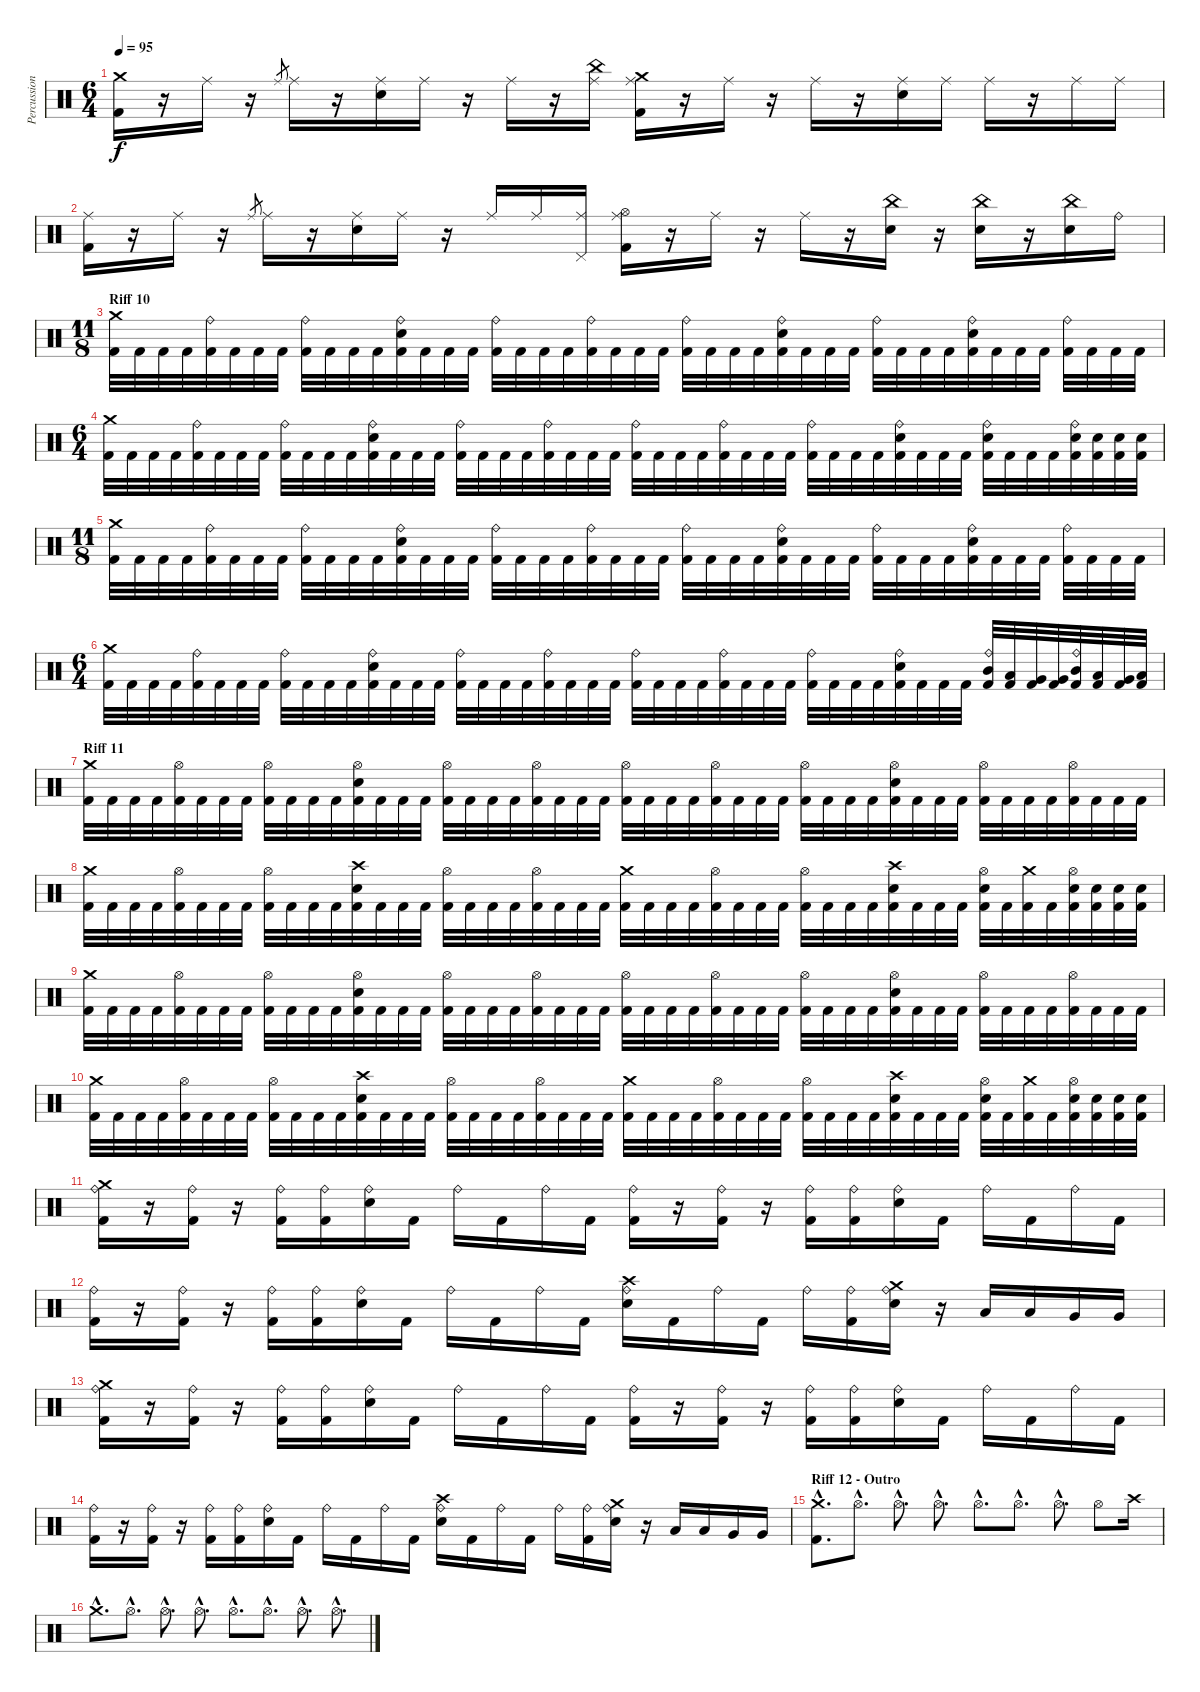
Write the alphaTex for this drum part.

\track ("Percussion" "Percussion") {instrument percussion}
\staff {score}
\articulation defaults
\ts (6 4)
\tempo 95
\clef neutral
\ks c
("Crash medium (hit)" "Kick (hit) 2").16{dy f} r.16 "Ride (middle)".16 r.16 "Ride (middle)".8{gr} "Ride (middle)".16 r.16 ("Ride (middle)" "Electric Snare (hit)").16 "Ride (middle)".16 r.16 "Ride (middle)".16 r.16 ("Ride (middle)" "China (hit)").16 ("Ride (middle)" "Crash medium (hit)" "Kick (hit) 2").16 r.16 "Ride (middle)".16 r.16 "Ride (middle)".16 r.16 ("Ride (middle)" "Electric Snare (hit)").16 "Ride (middle)".16 "Ride (middle)".16 r.16 "Ride (middle)".16 "Ride (middle)".16 |
("Ride (middle)" "Kick (hit) 2").16 r.16 "Ride (middle)".16 r.16 "Ride (middle)".8{gr} "Ride (middle)".16 r.16 ("Ride (middle)" "Electric Snare (hit)").16 "Ride (middle)".16 r.16 "Ride (middle)".16 "Ride (middle)".16 ("Ride (middle)" "Pedal Hi-Hat (hit)").16 ("Ride (middle)" "Hi-Hat (open)" "Kick (hit) 2").16 r.16 "Ride (middle)".16 r.16 "Ride (middle)".16 r.16 ("China (hit)" "Electric Snare (hit)").16 r.16 ("China (hit)" "Electric Snare (hit)").16 r.16 ("China (hit)" "Electric Snare (hit)").16 "Ride (bell)".16 |
\ts (11 8)
\section ("" "Riff 10")
("Crash medium (hit)" "Kick (hit) 2").32 "Kick (hit) 2".32 "Kick (hit) 2".32 "Kick (hit) 2".32 ("Ride (bell)" "Kick (hit) 2").32 "Kick (hit) 2".32 "Kick (hit) 2".32 "Kick (hit) 2".32 ("Ride (bell)" "Kick (hit) 2").32 "Kick (hit) 2".32 "Kick (hit) 2".32 "Kick (hit) 2".32 ("Ride (bell)" "Electric Snare (hit)" "Kick (hit) 2").32 "Kick (hit) 2".32 "Kick (hit) 2".32 "Kick (hit) 2".32 ("Ride (bell)" "Kick (hit) 2").32 "Kick (hit) 2".32 "Kick (hit) 2".32 "Kick (hit) 2".32 ("Ride (bell)" "Kick (hit) 2").32 "Kick (hit) 2".32 "Kick (hit) 2".32 "Kick (hit) 2".32 ("Ride (bell)" "Kick (hit) 2").32 "Kick (hit) 2".32 "Kick (hit) 2".32 "Kick (hit) 2".32 ("Ride (bell)" "Electric Snare (hit)" "Kick (hit) 2").32 "Kick (hit) 2".32 "Kick (hit) 2".32 "Kick (hit) 2".32 ("Ride (bell)" "Kick (hit) 2").32 "Kick (hit) 2".32 "Kick (hit) 2".32 "Kick (hit) 2".32 ("Ride (bell)" "Electric Snare (hit)" "Kick (hit) 2").32 "Kick (hit) 2".32 "Kick (hit) 2".32 "Kick (hit) 2".32 ("Ride (bell)" "Kick (hit) 2").32 "Kick (hit) 2".32 "Kick (hit) 2".32 "Kick (hit) 2".32 |
\ts (6 4)
("Crash medium (hit)" "Kick (hit) 2").32 "Kick (hit) 2".32 "Kick (hit) 2".32 "Kick (hit) 2".32 ("Ride (bell)" "Kick (hit) 2").32 "Kick (hit) 2".32 "Kick (hit) 2".32 "Kick (hit) 2".32 ("Ride (bell)" "Kick (hit) 2").32 "Kick (hit) 2".32 "Kick (hit) 2".32 "Kick (hit) 2".32 ("Ride (bell)" "Electric Snare (hit)" "Kick (hit) 2").32 "Kick (hit) 2".32 "Kick (hit) 2".32 "Kick (hit) 2".32 ("Ride (bell)" "Kick (hit) 2").32 "Kick (hit) 2".32 "Kick (hit) 2".32 "Kick (hit) 2".32 ("Ride (bell)" "Kick (hit) 2").32 "Kick (hit) 2".32 "Kick (hit) 2".32 "Kick (hit) 2".32 ("Ride (bell)" "Kick (hit) 2").32 "Kick (hit) 2".32 "Kick (hit) 2".32 "Kick (hit) 2".32 ("Ride (bell)" "Kick (hit) 2").32 "Kick (hit) 2".32 "Kick (hit) 2".32 "Kick (hit) 2".32 ("Ride (bell)" "Kick (hit) 2").32 "Kick (hit) 2".32 "Kick (hit) 2".32 "Kick (hit) 2".32 ("Ride (bell)" "Electric Snare (hit)" "Kick (hit) 2").32 "Kick (hit) 2".32 "Kick (hit) 2".32 "Kick (hit) 2".32 ("Ride (bell)" "Electric Snare (hit)" "Kick (hit) 2").32 "Kick (hit) 2".32 "Kick (hit) 2".32 "Kick (hit) 2".32 ("Ride (bell)" "Electric Snare (hit)" "Kick (hit) 2").32 ("Electric Snare (hit)" "Kick (hit) 2").32 ("Electric Snare (hit)" "Kick (hit) 2").32 ("Electric Snare (hit)" "Kick (hit) 2").32 |
\ts (11 8)
("Crash medium (hit)" "Kick (hit) 2").32 "Kick (hit) 2".32 "Kick (hit) 2".32 "Kick (hit) 2".32 ("Ride (bell)" "Kick (hit) 2").32 "Kick (hit) 2".32 "Kick (hit) 2".32 "Kick (hit) 2".32 ("Ride (bell)" "Kick (hit) 2").32 "Kick (hit) 2".32 "Kick (hit) 2".32 "Kick (hit) 2".32 ("Ride (bell)" "Electric Snare (hit)" "Kick (hit) 2").32 "Kick (hit) 2".32 "Kick (hit) 2".32 "Kick (hit) 2".32 ("Ride (bell)" "Kick (hit) 2").32 "Kick (hit) 2".32 "Kick (hit) 2".32 "Kick (hit) 2".32 ("Ride (bell)" "Kick (hit) 2").32 "Kick (hit) 2".32 "Kick (hit) 2".32 "Kick (hit) 2".32 ("Ride (bell)" "Kick (hit) 2").32 "Kick (hit) 2".32 "Kick (hit) 2".32 "Kick (hit) 2".32 ("Ride (bell)" "Electric Snare (hit)" "Kick (hit) 2").32 "Kick (hit) 2".32 "Kick (hit) 2".32 "Kick (hit) 2".32 ("Ride (bell)" "Kick (hit) 2").32 "Kick (hit) 2".32 "Kick (hit) 2".32 "Kick (hit) 2".32 ("Ride (bell)" "Electric Snare (hit)" "Kick (hit) 2").32 "Kick (hit) 2".32 "Kick (hit) 2".32 "Kick (hit) 2".32 ("Ride (bell)" "Kick (hit) 2").32 "Kick (hit) 2".32 "Kick (hit) 2".32 "Kick (hit) 2".32 |
\ts (6 4)
("Crash medium (hit)" "Kick (hit) 2").32 "Kick (hit) 2".32 "Kick (hit) 2".32 "Kick (hit) 2".32 ("Ride (bell)" "Kick (hit) 2").32 "Kick (hit) 2".32 "Kick (hit) 2".32 "Kick (hit) 2".32 ("Ride (bell)" "Kick (hit) 2").32 "Kick (hit) 2".32 "Kick (hit) 2".32 "Kick (hit) 2".32 ("Ride (bell)" "Electric Snare (hit)" "Kick (hit) 2").32 "Kick (hit) 2".32 "Kick (hit) 2".32 "Kick (hit) 2".32 ("Ride (bell)" "Kick (hit) 2").32 "Kick (hit) 2".32 "Kick (hit) 2".32 "Kick (hit) 2".32 ("Ride (bell)" "Kick (hit) 2").32 "Kick (hit) 2".32 "Kick (hit) 2".32 "Kick (hit) 2".32 ("Ride (bell)" "Kick (hit) 2").32 "Kick (hit) 2".32 "Kick (hit) 2".32 "Kick (hit) 2".32 ("Ride (bell)" "Kick (hit) 2").32 "Kick (hit) 2".32 "Kick (hit) 2".32 "Kick (hit) 2".32 ("Ride (bell)" "Kick (hit) 2").32 "Kick (hit) 2".32 "Kick (hit) 2".32 "Kick (hit) 2".32 ("Ride (bell)" "Electric Snare (hit)" "Kick (hit) 2").32 "Kick (hit) 2".32 "Kick (hit) 2".32 "Kick (hit) 2".32 ("Ride (bell)" "Mid Tom (hit)" "Kick (hit) 2").32 ("Low Tom (hit)" "Kick (hit) 2").32 ("Very Low Tom (hit)" "Kick (hit) 2").32 ("Very Low Tom (hit)" "Kick (hit) 2").32 ("Ride (bell)" "Mid Tom (hit)" "Kick (hit) 2").32 ("Low Tom (hit)" "Kick (hit) 2").32 ("Very Low Tom (hit)" "Kick (hit) 2").32 ("Low Floor Tom (hit)" "Kick (hit) 2").32 |
\section ("" "Riff 11")
("Crash medium (hit)" "Kick (hit) 2").32 "Kick (hit) 2".32 "Kick (hit) 2".32 "Kick (hit) 2".32 ("Hi-Hat (open)" "Kick (hit) 2").32 "Kick (hit) 2".32 "Kick (hit) 2".32 "Kick (hit) 2".32 ("Hi-Hat (open)" "Kick (hit) 2").32 "Kick (hit) 2".32 "Kick (hit) 2".32 "Kick (hit) 2".32 ("Hi-Hat (open)" "Electric Snare (hit)" "Kick (hit) 2").32 "Kick (hit) 2".32 "Kick (hit) 2".32 "Kick (hit) 2".32 ("Hi-Hat (open)" "Kick (hit) 2").32 "Kick (hit) 2".32 "Kick (hit) 2".32 "Kick (hit) 2".32 ("Hi-Hat (open)" "Kick (hit) 2").32 "Kick (hit) 2".32 "Kick (hit) 2".32 "Kick (hit) 2".32 ("Hi-Hat (open)" "Kick (hit) 2").32 "Kick (hit) 2".32 "Kick (hit) 2".32 "Kick (hit) 2".32 ("Hi-Hat (open)" "Kick (hit) 2").32 "Kick (hit) 2".32 "Kick (hit) 2".32 "Kick (hit) 2".32 ("Hi-Hat (open)" "Kick (hit) 2").32 "Kick (hit) 2".32 "Kick (hit) 2".32 "Kick (hit) 2".32 ("Hi-Hat (open)" "Electric Snare (hit)" "Kick (hit) 2").32 "Kick (hit) 2".32 "Kick (hit) 2".32 "Kick (hit) 2".32 ("Hi-Hat (open)" "Kick (hit) 2").32 "Kick (hit) 2".32 "Kick (hit) 2".32 "Kick (hit) 2".32 ("Hi-Hat (open)" "Kick (hit) 2").32 "Kick (hit) 2".32 "Kick (hit) 2".32 "Kick (hit) 2".32 |
("Crash medium (hit)" "Kick (hit) 2").32 "Kick (hit) 2".32 "Kick (hit) 2".32 "Kick (hit) 2".32 ("Hi-Hat (open)" "Kick (hit) 2").32 "Kick (hit) 2".32 "Kick (hit) 2".32 "Kick (hit) 2".32 ("Hi-Hat (open)" "Kick (hit) 2").32 "Kick (hit) 2".32 "Kick (hit) 2".32 "Kick (hit) 2".32 ("Crash high (hit)" "Electric Snare (hit)" "Kick (hit) 2").32 "Kick (hit) 2".32 "Kick (hit) 2".32 "Kick (hit) 2".32 ("Hi-Hat (open)" "Kick (hit) 2").32 "Kick (hit) 2".32 "Kick (hit) 2".32 "Kick (hit) 2".32 ("Hi-Hat (open)" "Kick (hit) 2").32 "Kick (hit) 2".32 "Kick (hit) 2".32 "Kick (hit) 2".32 ("Crash medium (hit)" "Kick (hit) 2").32 "Kick (hit) 2".32 "Kick (hit) 2".32 "Kick (hit) 2".32 ("Hi-Hat (open)" "Kick (hit) 2").32 "Kick (hit) 2".32 "Kick (hit) 2".32 "Kick (hit) 2".32 ("Hi-Hat (open)" "Kick (hit) 2").32 "Kick (hit) 2".32 "Kick (hit) 2".32 "Kick (hit) 2".32 ("Crash high (hit)" "Electric Snare (hit)" "Kick (hit) 2").32 "Kick (hit) 2".32 "Kick (hit) 2".32 "Kick (hit) 2".32 ("Hi-Hat (open)" "Electric Snare (hit)" "Kick (hit) 2").32 "Kick (hit) 2".32 ("Crash medium (hit)" "Kick (hit) 2").32 "Kick (hit) 2".32 ("Hi-Hat (open)" "Electric Snare (hit)" "Kick (hit) 2").32 ("Electric Snare (hit)" "Kick (hit) 2").32 ("Electric Snare (hit)" "Kick (hit) 2").32 ("Electric Snare (hit)" "Kick (hit) 2").32 |
("Crash medium (hit)" "Kick (hit) 2").32 "Kick (hit) 2".32 "Kick (hit) 2".32 "Kick (hit) 2".32 ("Hi-Hat (open)" "Kick (hit) 2").32 "Kick (hit) 2".32 "Kick (hit) 2".32 "Kick (hit) 2".32 ("Hi-Hat (open)" "Kick (hit) 2").32 "Kick (hit) 2".32 "Kick (hit) 2".32 "Kick (hit) 2".32 ("Hi-Hat (open)" "Electric Snare (hit)" "Kick (hit) 2").32 "Kick (hit) 2".32 "Kick (hit) 2".32 "Kick (hit) 2".32 ("Hi-Hat (open)" "Kick (hit) 2").32 "Kick (hit) 2".32 "Kick (hit) 2".32 "Kick (hit) 2".32 ("Hi-Hat (open)" "Kick (hit) 2").32 "Kick (hit) 2".32 "Kick (hit) 2".32 "Kick (hit) 2".32 ("Hi-Hat (open)" "Kick (hit) 2").32 "Kick (hit) 2".32 "Kick (hit) 2".32 "Kick (hit) 2".32 ("Hi-Hat (open)" "Kick (hit) 2").32 "Kick (hit) 2".32 "Kick (hit) 2".32 "Kick (hit) 2".32 ("Hi-Hat (open)" "Kick (hit) 2").32 "Kick (hit) 2".32 "Kick (hit) 2".32 "Kick (hit) 2".32 ("Hi-Hat (open)" "Electric Snare (hit)" "Kick (hit) 2").32 "Kick (hit) 2".32 "Kick (hit) 2".32 "Kick (hit) 2".32 ("Hi-Hat (open)" "Kick (hit) 2").32 "Kick (hit) 2".32 "Kick (hit) 2".32 "Kick (hit) 2".32 ("Hi-Hat (open)" "Kick (hit) 2").32 "Kick (hit) 2".32 "Kick (hit) 2".32 "Kick (hit) 2".32 |
("Crash medium (hit)" "Kick (hit) 2").32 "Kick (hit) 2".32 "Kick (hit) 2".32 "Kick (hit) 2".32 ("Hi-Hat (open)" "Kick (hit) 2").32 "Kick (hit) 2".32 "Kick (hit) 2".32 "Kick (hit) 2".32 ("Hi-Hat (open)" "Kick (hit) 2").32 "Kick (hit) 2".32 "Kick (hit) 2".32 "Kick (hit) 2".32 ("Crash high (hit)" "Electric Snare (hit)" "Kick (hit) 2").32 "Kick (hit) 2".32 "Kick (hit) 2".32 "Kick (hit) 2".32 ("Hi-Hat (open)" "Kick (hit) 2").32 "Kick (hit) 2".32 "Kick (hit) 2".32 "Kick (hit) 2".32 ("Hi-Hat (open)" "Kick (hit) 2").32 "Kick (hit) 2".32 "Kick (hit) 2".32 "Kick (hit) 2".32 ("Crash medium (hit)" "Kick (hit) 2").32 "Kick (hit) 2".32 "Kick (hit) 2".32 "Kick (hit) 2".32 ("Hi-Hat (open)" "Kick (hit) 2").32 "Kick (hit) 2".32 "Kick (hit) 2".32 "Kick (hit) 2".32 ("Hi-Hat (open)" "Kick (hit) 2").32 "Kick (hit) 2".32 "Kick (hit) 2".32 "Kick (hit) 2".32 ("Crash high (hit)" "Electric Snare (hit)" "Kick (hit) 2").32 "Kick (hit) 2".32 "Kick (hit) 2".32 "Kick (hit) 2".32 ("Hi-Hat (open)" "Electric Snare (hit)" "Kick (hit) 2").32 "Kick (hit) 2".32 ("Crash medium (hit)" "Kick (hit) 2").32 "Kick (hit) 2".32 ("Hi-Hat (open)" "Electric Snare (hit)" "Kick (hit) 2").32 ("Electric Snare (hit)" "Kick (hit) 2").32 ("Electric Snare (hit)" "Kick (hit) 2").32 ("Electric Snare (hit)" "Kick (hit) 2").32 |
("Crash medium (hit)" "Ride (bell)" "Kick (hit) 2").16 r.16 ("Ride (bell)" "Kick (hit) 2").16 r.16 ("Ride (bell)" "Kick (hit) 2").16 ("Ride (bell)" "Kick (hit) 2").16 ("Ride (bell)" "Electric Snare (hit)").16 "Kick (hit) 2".16 "Ride (bell)".16 "Kick (hit) 2".16 "Ride (bell)".16 "Kick (hit) 2".16 ("Ride (bell)" "Kick (hit) 2").16 r.16 ("Ride (bell)" "Kick (hit) 2").16 r.16 ("Ride (bell)" "Kick (hit) 2").16 ("Ride (bell)" "Kick (hit) 2").16 ("Ride (bell)" "Electric Snare (hit)").16 "Kick (hit) 2".16 "Ride (bell)".16 "Kick (hit) 2".16 "Ride (bell)".16 "Kick (hit) 2".16 |
("Ride (bell)" "Kick (hit) 2").16 r.16 ("Ride (bell)" "Kick (hit) 2").16 r.16 ("Ride (bell)" "Kick (hit) 2").16 ("Ride (bell)" "Kick (hit) 2").16 ("Ride (bell)" "Electric Snare (hit)").16 "Kick (hit) 2".16 "Ride (bell)".16 "Kick (hit) 2".16 "Ride (bell)".16 "Kick (hit) 2".16 ("Crash high (hit)" "Ride (bell)" "Electric Snare (hit)").16 "Kick (hit) 2".16 "Ride (bell)".16 "Kick (hit) 2".16 "Ride (bell)".16 ("Ride (bell)" "Kick (hit) 2").16 ("Crash medium (hit)" "Ride (bell)" "Electric Snare (hit)").16 r.16 "Low Tom (hit)".16 "Low Tom (hit)".16 "Very Low Tom (hit)".16 "Very Low Tom (hit)".16 |
("Crash medium (hit)" "Ride (bell)" "Kick (hit) 2").16 r.16 ("Ride (bell)" "Kick (hit) 2").16 r.16 ("Ride (bell)" "Kick (hit) 2").16 ("Ride (bell)" "Kick (hit) 2").16 ("Ride (bell)" "Electric Snare (hit)").16 "Kick (hit) 2".16 "Ride (bell)".16 "Kick (hit) 2".16 "Ride (bell)".16 "Kick (hit) 2".16 ("Ride (bell)" "Kick (hit) 2").16 r.16 ("Ride (bell)" "Kick (hit) 2").16 r.16 ("Ride (bell)" "Kick (hit) 2").16 ("Ride (bell)" "Kick (hit) 2").16 ("Ride (bell)" "Electric Snare (hit)").16 "Kick (hit) 2".16 "Ride (bell)".16 "Kick (hit) 2".16 "Ride (bell)".16 "Kick (hit) 2".16 |
("Ride (bell)" "Kick (hit) 2").16 r.16 ("Ride (bell)" "Kick (hit) 2").16 r.16 ("Ride (bell)" "Kick (hit) 2").16 ("Ride (bell)" "Kick (hit) 2").16 ("Ride (bell)" "Electric Snare (hit)").16 "Kick (hit) 2".16 "Ride (bell)".16 "Kick (hit) 2".16 "Ride (bell)".16 "Kick (hit) 2".16 ("Crash high (hit)" "Ride (bell)" "Electric Snare (hit)").16 "Kick (hit) 2".16 "Ride (bell)".16 "Kick (hit) 2".16 "Ride (bell)".16 ("Ride (bell)" "Kick (hit) 2").16 ("Crash medium (hit)" "Ride (bell)" "Electric Snare (hit)").16 r.16 "Low Tom (hit)".16 "Low Tom (hit)".16 "Very Low Tom (hit)".16 "Very Low Tom (hit)".16 |
\section ("" "Riff 12 - Outro")
("Crash medium (hit)"{hac} "Kick (hit) 2"{hac}).8{d} "Hi-Hat (open)"{hac}.8{d} "Hi-Hat (open)"{hac}.8{d} "Hi-Hat (open)"{hac}.8{d} "Hi-Hat (open)"{hac}.8{d} "Hi-Hat (open)"{hac}.8{d} "Hi-Hat (open)"{hac}.8{d} "Hi-Hat (open)".8 "Crash high (hit)".16 |
"Crash medium (hit)"{hac}.8{d} "Hi-Hat (open)"{hac}.8{d} "Hi-Hat (open)"{hac}.8{d} "Hi-Hat (open)"{hac}.8{d} "Hi-Hat (open)"{hac}.8{d} "Hi-Hat (open)"{hac}.8{d} "Hi-Hat (open)"{hac}.8{d} "Hi-Hat (open)"{hac}.8{d}
